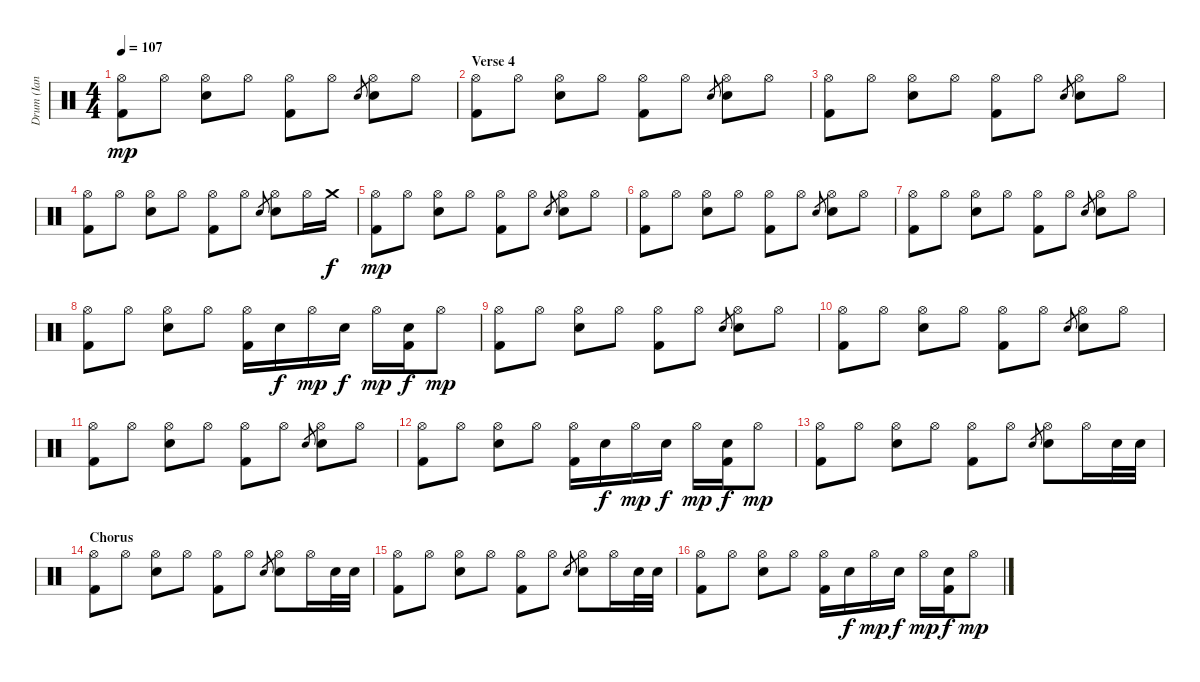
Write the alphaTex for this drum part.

\track ("Drum (Ian Paice)" "Drum (Ian ") {instrument percussion}
\staff {score}
\articulation defaults
\ts (4 4)
\tempo 107
\clef neutral
\ks c
("Hi-Hat (open)" "Kick (hit) 2").8{dy mp} "Hi-Hat (open)".8 ("Hi-Hat (open)" "Snare (hit) 2").8 "Hi-Hat (open)".8 ("Hi-Hat (open)" "Kick (hit) 2").8 "Hi-Hat (open)".8 "Snare (hit) 2".8{gr} ("Hi-Hat (open)" "Snare (hit) 2").8 "Hi-Hat (open)".8 |
\section ("" "Verse 4")
("Hi-Hat (open)" "Kick (hit) 2").8 "Hi-Hat (open)".8 ("Hi-Hat (open)" "Snare (hit) 2").8 "Hi-Hat (open)".8 ("Hi-Hat (open)" "Kick (hit) 2").8 "Hi-Hat (open)".8 "Snare (hit) 2".8{gr} ("Hi-Hat (open)" "Snare (hit) 2").8 "Hi-Hat (open)".8 |
("Hi-Hat (open)" "Kick (hit) 2").8 "Hi-Hat (open)".8 ("Hi-Hat (open)" "Snare (hit) 2").8 "Hi-Hat (open)".8 ("Hi-Hat (open)" "Kick (hit) 2").8 "Hi-Hat (open)".8 "Snare (hit) 2".8{gr} ("Hi-Hat (open)" "Snare (hit) 2").8 "Hi-Hat (open)".8 |
("Hi-Hat (open)" "Kick (hit) 2").8 "Hi-Hat (open)".8 ("Hi-Hat (open)" "Snare (hit) 2").8 "Hi-Hat (open)".8 ("Hi-Hat (open)" "Kick (hit) 2").8 "Hi-Hat (open)".8 "Snare (hit) 2".8{gr} ("Hi-Hat (open)" "Snare (hit) 2").8 "Hi-Hat (open)".16 "Crash medium (hit)".16{dy f} |
("Hi-Hat (open)" "Kick (hit) 2").8{dy mp} "Hi-Hat (open)".8 ("Hi-Hat (open)" "Snare (hit) 2").8 "Hi-Hat (open)".8 ("Hi-Hat (open)" "Kick (hit) 2").8 "Hi-Hat (open)".8 "Snare (hit) 2".8{gr} ("Hi-Hat (open)" "Snare (hit) 2").8 "Hi-Hat (open)".8 |
("Hi-Hat (open)" "Kick (hit) 2").8 "Hi-Hat (open)".8 ("Hi-Hat (open)" "Snare (hit) 2").8 "Hi-Hat (open)".8 ("Hi-Hat (open)" "Kick (hit) 2").8 "Hi-Hat (open)".8 "Snare (hit) 2".8{gr} ("Hi-Hat (open)" "Snare (hit) 2").8 "Hi-Hat (open)".8 |
("Hi-Hat (open)" "Kick (hit) 2").8 "Hi-Hat (open)".8 ("Hi-Hat (open)" "Snare (hit) 2").8 "Hi-Hat (open)".8 ("Hi-Hat (open)" "Kick (hit) 2").8 "Hi-Hat (open)".8 "Snare (hit) 2".8{gr} ("Hi-Hat (open)" "Snare (hit) 2").8 "Hi-Hat (open)".8 |
("Hi-Hat (open)" "Kick (hit) 2").8 "Hi-Hat (open)".8 ("Hi-Hat (open)" "Snare (hit) 2").8 "Hi-Hat (open)".8 ("Hi-Hat (open)" "Kick (hit) 2").16 "Snare (hit) 2".16{dy f} "Hi-Hat (open)".16{dy mp} "Snare (hit) 2".16{dy f} "Hi-Hat (open)".16{dy mp} ("Snare (hit) 2" "Kick (hit) 2").16{dy f} "Hi-Hat (open)".8{dy mp} |
("Hi-Hat (open)" "Kick (hit) 2").8 "Hi-Hat (open)".8 ("Hi-Hat (open)" "Snare (hit) 2").8 "Hi-Hat (open)".8 ("Hi-Hat (open)" "Kick (hit) 2").8 "Hi-Hat (open)".8 "Snare (hit) 2".8{gr} ("Hi-Hat (open)" "Snare (hit) 2").8 "Hi-Hat (open)".8 |
("Hi-Hat (open)" "Kick (hit) 2").8 "Hi-Hat (open)".8 ("Hi-Hat (open)" "Snare (hit) 2").8 "Hi-Hat (open)".8 ("Hi-Hat (open)" "Kick (hit) 2").8 "Hi-Hat (open)".8 "Snare (hit) 2".8{gr} ("Hi-Hat (open)" "Snare (hit) 2").8 "Hi-Hat (open)".8 |
("Hi-Hat (open)" "Kick (hit) 2").8 "Hi-Hat (open)".8 ("Hi-Hat (open)" "Snare (hit) 2").8 "Hi-Hat (open)".8 ("Hi-Hat (open)" "Kick (hit) 2").8 "Hi-Hat (open)".8 "Snare (hit) 2".8{gr} ("Hi-Hat (open)" "Snare (hit) 2").8 "Hi-Hat (open)".8 |
("Hi-Hat (open)" "Kick (hit) 2").8 "Hi-Hat (open)".8 ("Hi-Hat (open)" "Snare (hit) 2").8 "Hi-Hat (open)".8 ("Hi-Hat (open)" "Kick (hit) 2").16 "Snare (hit) 2".16{dy f} "Hi-Hat (open)".16{dy mp} "Snare (hit) 2".16{dy f} "Hi-Hat (open)".16{dy mp} ("Snare (hit) 2" "Kick (hit) 2").16{dy f} "Hi-Hat (open)".8{dy mp} |
("Hi-Hat (open)" "Kick (hit) 2").8 "Hi-Hat (open)".8 ("Hi-Hat (open)" "Snare (hit) 2").8 "Hi-Hat (open)".8 ("Hi-Hat (open)" "Kick (hit) 2").8 "Hi-Hat (open)".8 "Snare (hit) 2".8{gr} ("Hi-Hat (open)" "Snare (hit) 2").8 "Hi-Hat (open)".16 "Snare (hit) 2".32 "Snare (hit) 2".32 |
\section ("" "Chorus")
("Hi-Hat (open)" "Kick (hit) 2").8 "Hi-Hat (open)".8 ("Hi-Hat (open)" "Snare (hit) 2").8 "Hi-Hat (open)".8 ("Hi-Hat (open)" "Kick (hit) 2").8 "Hi-Hat (open)".8 "Snare (hit) 2".8{gr} ("Hi-Hat (open)" "Snare (hit) 2").8 "Hi-Hat (open)".16 "Snare (hit) 2".32 "Snare (hit) 2".32 |
("Hi-Hat (open)" "Kick (hit) 2").8 "Hi-Hat (open)".8 ("Hi-Hat (open)" "Snare (hit) 2").8 "Hi-Hat (open)".8 ("Hi-Hat (open)" "Kick (hit) 2").8 "Hi-Hat (open)".8 "Snare (hit) 2".8{gr} ("Hi-Hat (open)" "Snare (hit) 2").8 "Hi-Hat (open)".16 "Snare (hit) 2".32 "Snare (hit) 2".32 |
("Hi-Hat (open)" "Kick (hit) 2").8 "Hi-Hat (open)".8 ("Hi-Hat (open)" "Snare (hit) 2").8 "Hi-Hat (open)".8 ("Hi-Hat (open)" "Kick (hit) 2").16 "Snare (hit) 2".16{dy f} "Hi-Hat (open)".16{dy mp} "Snare (hit) 2".16{dy f} "Hi-Hat (open)".16{dy mp} ("Snare (hit) 2" "Kick (hit) 2").16{dy f} "Hi-Hat (open)".8{dy mp}
